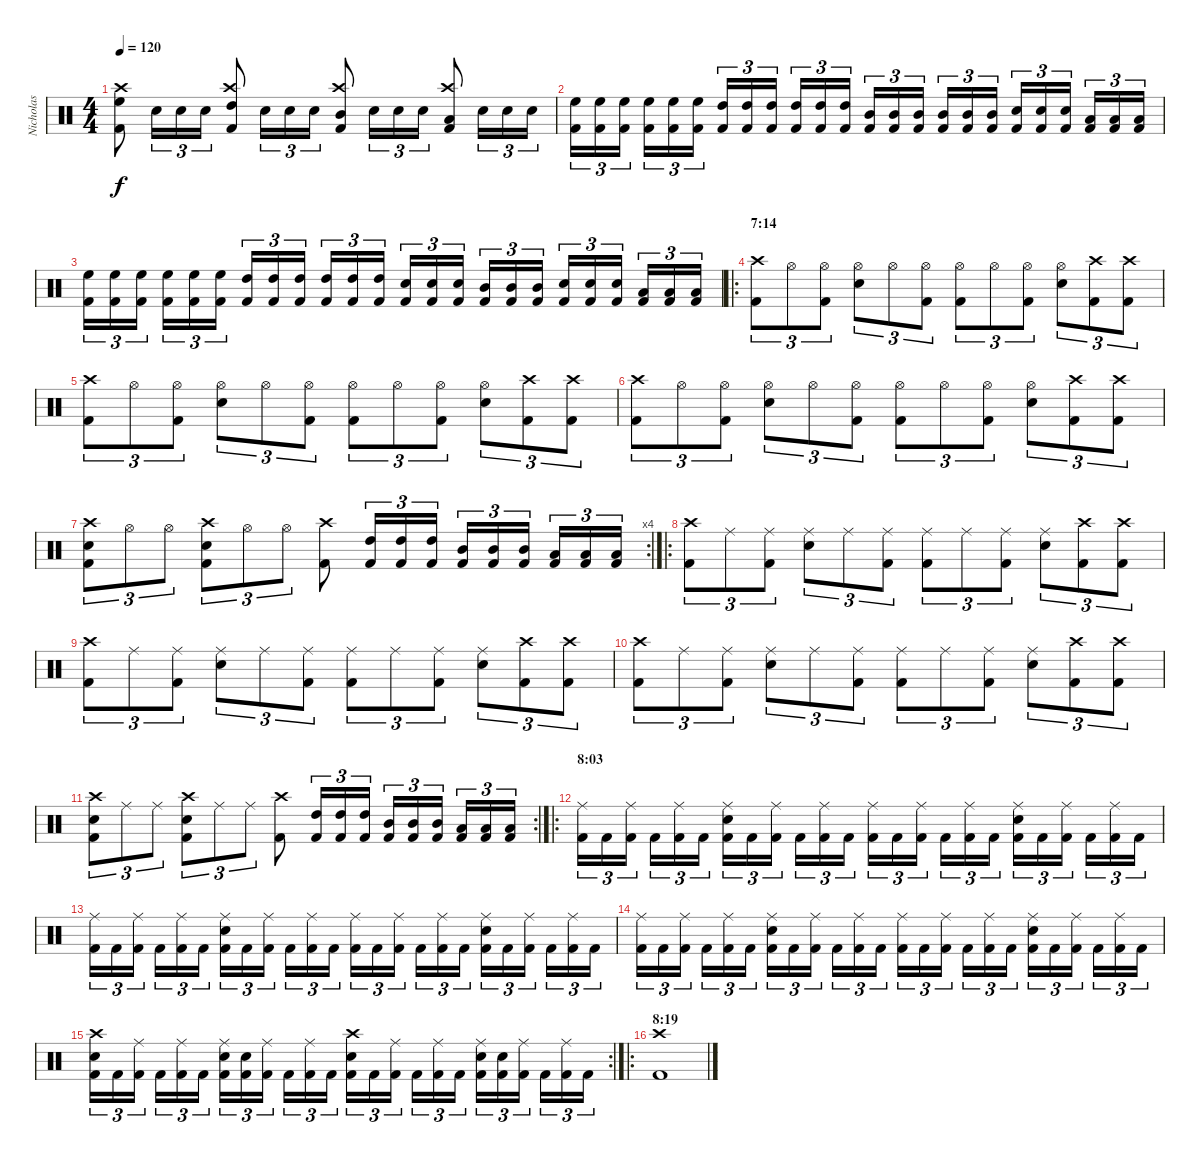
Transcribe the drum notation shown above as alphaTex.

\track ("Nicholas" "Nicholas") {instrument percussion}
\staff {score}
\articulation defaults
\ts (4 4)
\tempo 120
\clef neutral
\ks c
("Kick (hit) 2" "High Floor Tom (hit)" "Crash high (hit)").8{dy f} "Snare (hit) 2".16{tu (3 2)} "Snare (hit) 2".16{tu (3 2)} "Snare (hit) 2".16{tu (3 2)} ("Kick (hit) 2" "High Tom (hit)" "Crash high (hit)").8 "Snare (hit) 2".16{tu (3 2)} "Snare (hit) 2".16{tu (3 2)} "Snare (hit) 2".16{tu (3 2)} ("Kick (hit) 2" "Mid Tom (hit)" "Crash high (hit)").8 "Snare (hit) 2".16{tu (3 2)} "Snare (hit) 2".16{tu (3 2)} "Snare (hit) 2".16{tu (3 2)} ("Kick (hit) 2" "Low Tom (hit)" "Crash high (hit)").8 "Snare (hit) 2".16{tu (3 2)} "Snare (hit) 2".16{tu (3 2)} "Snare (hit) 2".16{tu (3 2)} |
("Kick (hit) 2" "High Floor Tom (hit)").16{tu (3 2)} ("Kick (hit) 2" "High Floor Tom (hit)").16{tu (3 2)} ("Kick (hit) 2" "High Floor Tom (hit)").16{tu (3 2)} ("Kick (hit) 2" "High Floor Tom (hit)").16{tu (3 2)} ("Kick (hit) 2" "High Floor Tom (hit)").16{tu (3 2)} ("Kick (hit) 2" "High Floor Tom (hit)").16{tu (3 2)} ("Kick (hit) 2" "High Tom (hit)").16{tu (3 2)} ("Kick (hit) 2" "High Tom (hit)").16{tu (3 2)} ("Kick (hit) 2" "High Tom (hit)").16{tu (3 2)} ("Kick (hit) 2" "High Tom (hit)").16{tu (3 2)} ("Kick (hit) 2" "High Tom (hit)").16{tu (3 2)} ("Kick (hit) 2" "High Tom (hit)").16{tu (3 2)} ("Kick (hit) 2" "Mid Tom (hit)").16{tu (3 2)} ("Kick (hit) 2" "Mid Tom (hit)").16{tu (3 2)} ("Kick (hit) 2" "Mid Tom (hit)").16{tu (3 2)} ("Kick (hit) 2" "Mid Tom (hit)").16{tu (3 2)} ("Kick (hit) 2" "Mid Tom (hit)").16{tu (3 2)} ("Kick (hit) 2" "Mid Tom (hit)").16{tu (3 2)} ("Kick (hit) 2" "Snare (hit) 2").16{tu (3 2)} ("Kick (hit) 2" "Snare (hit) 2").16{tu (3 2)} ("Kick (hit) 2" "Snare (hit) 2").16{tu (3 2)} ("Kick (hit) 2" "Low Tom (hit)").16{tu (3 2)} ("Kick (hit) 2" "Low Tom (hit)").16{tu (3 2)} ("Kick (hit) 2" "Low Tom (hit)").16{tu (3 2)} |
("Kick (hit) 2" "High Floor Tom (hit)").16{tu (3 2)} ("Kick (hit) 2" "High Floor Tom (hit)").16{tu (3 2)} ("Kick (hit) 2" "High Floor Tom (hit)").16{tu (3 2)} ("Kick (hit) 2" "High Floor Tom (hit)").16{tu (3 2)} ("Kick (hit) 2" "High Floor Tom (hit)").16{tu (3 2)} ("Kick (hit) 2" "High Floor Tom (hit)").16{tu (3 2)} ("Kick (hit) 2" "High Tom (hit)").16{tu (3 2)} ("Kick (hit) 2" "High Tom (hit)").16{tu (3 2)} ("Kick (hit) 2" "High Tom (hit)").16{tu (3 2)} ("Kick (hit) 2" "High Tom (hit)").16{tu (3 2)} ("Kick (hit) 2" "High Tom (hit)").16{tu (3 2)} ("Kick (hit) 2" "High Tom (hit)").16{tu (3 2)} ("Kick (hit) 2" "Snare (hit) 2").16{tu (3 2)} ("Kick (hit) 2" "Snare (hit) 2").16{tu (3 2)} ("Kick (hit) 2" "Snare (hit) 2").16{tu (3 2)} ("Kick (hit) 2" "Mid Tom (hit)").16{tu (3 2)} ("Kick (hit) 2" "Mid Tom (hit)").16{tu (3 2)} ("Kick (hit) 2" "Mid Tom (hit)").16{tu (3 2)} ("Kick (hit) 2" "Snare (hit) 2").16{tu (3 2)} ("Kick (hit) 2" "Snare (hit) 2").16{tu (3 2)} ("Kick (hit) 2" "Snare (hit) 2").16{tu (3 2)} ("Kick (hit) 2" "Low Tom (hit)").16{tu (3 2)} ("Kick (hit) 2" "Low Tom (hit)").16{tu (3 2)} ("Kick (hit) 2" "Low Tom (hit)").16{tu (3 2)} |
\ro
\section ("" "7:14")
("Kick (hit) 2" "Crash high (hit)").8{tu (3 2)} "Hi-Hat (open)".8{tu (3 2)} ("Kick (hit) 2" "Hi-Hat (open)").8{tu (3 2)} ("Snare (hit) 2" "Hi-Hat (open)").8{tu (3 2)} "Hi-Hat (open)".8{tu (3 2)} ("Kick (hit) 2" "Hi-Hat (open)").8{tu (3 2)} ("Kick (hit) 2" "Hi-Hat (open)").8{tu (3 2)} "Hi-Hat (open)".8{tu (3 2)} ("Kick (hit) 2" "Hi-Hat (open)").8{tu (3 2)} ("Snare (hit) 2" "Hi-Hat (open)").8{tu (3 2)} ("Kick (hit) 2" "Crash high (hit)").8{tu (3 2)} ("Kick (hit) 2" "Crash high (hit)").8{tu (3 2)} |
("Kick (hit) 2" "Crash high (hit)").8{tu (3 2)} "Hi-Hat (open)".8{tu (3 2)} ("Kick (hit) 2" "Hi-Hat (open)").8{tu (3 2)} ("Snare (hit) 2" "Hi-Hat (open)").8{tu (3 2)} "Hi-Hat (open)".8{tu (3 2)} ("Kick (hit) 2" "Hi-Hat (open)").8{tu (3 2)} ("Kick (hit) 2" "Hi-Hat (open)").8{tu (3 2)} "Hi-Hat (open)".8{tu (3 2)} ("Kick (hit) 2" "Hi-Hat (open)").8{tu (3 2)} ("Snare (hit) 2" "Hi-Hat (open)").8{tu (3 2)} ("Kick (hit) 2" "Crash high (hit)").8{tu (3 2)} ("Kick (hit) 2" "Crash high (hit)").8{tu (3 2)} |
("Kick (hit) 2" "Crash high (hit)").8{tu (3 2)} "Hi-Hat (open)".8{tu (3 2)} ("Kick (hit) 2" "Hi-Hat (open)").8{tu (3 2)} ("Snare (hit) 2" "Hi-Hat (open)").8{tu (3 2)} "Hi-Hat (open)".8{tu (3 2)} ("Kick (hit) 2" "Hi-Hat (open)").8{tu (3 2)} ("Kick (hit) 2" "Hi-Hat (open)").8{tu (3 2)} "Hi-Hat (open)".8{tu (3 2)} ("Kick (hit) 2" "Hi-Hat (open)").8{tu (3 2)} ("Snare (hit) 2" "Hi-Hat (open)").8{tu (3 2)} ("Kick (hit) 2" "Crash high (hit)").8{tu (3 2)} ("Kick (hit) 2" "Crash high (hit)").8{tu (3 2)} |
\rc 4
("Kick (hit) 2" "Snare (hit) 2" "Crash high (hit)").8{tu (3 2)} "Hi-Hat (open)".8{tu (3 2)} "Hi-Hat (open)".8{tu (3 2)} ("Kick (hit) 2" "Snare (hit) 2" "Crash high (hit)").8{tu (3 2)} "Hi-Hat (open)".8{tu (3 2)} "Hi-Hat (open)".8{tu (3 2)} ("Kick (hit) 2" "Crash high (hit)").8 ("Kick (hit) 2" "High Tom (hit)").16{tu (3 2)} ("Kick (hit) 2" "High Tom (hit)").16{tu (3 2)} ("Kick (hit) 2" "High Tom (hit)").16{tu (3 2)} ("Kick (hit) 2" "Mid Tom (hit)").16{tu (3 2)} ("Kick (hit) 2" "Mid Tom (hit)").16{tu (3 2)} ("Kick (hit) 2" "Mid Tom (hit)").16{tu (3 2)} ("Kick (hit) 2" "Low Tom (hit)").16{tu (3 2)} ("Kick (hit) 2" "Low Tom (hit)").16{tu (3 2)} ("Kick (hit) 2" "Low Tom (hit)").16{tu (3 2)} |
\ro
("Kick (hit) 2" "Crash high (hit)").8{tu (3 2)} "Ride (middle)".8{tu (3 2)} ("Kick (hit) 2" "Ride (middle)").8{tu (3 2)} ("Snare (hit) 2" "Ride (middle)").8{tu (3 2)} "Ride (middle)".8{tu (3 2)} ("Kick (hit) 2" "Ride (middle)").8{tu (3 2)} ("Kick (hit) 2" "Ride (middle)").8{tu (3 2)} "Ride (middle)".8{tu (3 2)} ("Kick (hit) 2" "Ride (middle)").8{tu (3 2)} ("Snare (hit) 2" "Ride (middle)").8{tu (3 2)} ("Kick (hit) 2" "Crash high (hit)").8{tu (3 2)} ("Kick (hit) 2" "Crash high (hit)").8{tu (3 2)} |
("Kick (hit) 2" "Crash high (hit)").8{tu (3 2)} "Ride (middle)".8{tu (3 2)} ("Kick (hit) 2" "Ride (middle)").8{tu (3 2)} ("Snare (hit) 2" "Ride (middle)").8{tu (3 2)} "Ride (middle)".8{tu (3 2)} ("Kick (hit) 2" "Ride (middle)").8{tu (3 2)} ("Kick (hit) 2" "Ride (middle)").8{tu (3 2)} "Ride (middle)".8{tu (3 2)} ("Kick (hit) 2" "Ride (middle)").8{tu (3 2)} ("Snare (hit) 2" "Ride (middle)").8{tu (3 2)} ("Kick (hit) 2" "Crash high (hit)").8{tu (3 2)} ("Kick (hit) 2" "Crash high (hit)").8{tu (3 2)} |
("Kick (hit) 2" "Crash high (hit)").8{tu (3 2)} "Ride (middle)".8{tu (3 2)} ("Kick (hit) 2" "Ride (middle)").8{tu (3 2)} ("Snare (hit) 2" "Ride (middle)").8{tu (3 2)} "Ride (middle)".8{tu (3 2)} ("Kick (hit) 2" "Ride (middle)").8{tu (3 2)} ("Kick (hit) 2" "Ride (middle)").8{tu (3 2)} "Ride (middle)".8{tu (3 2)} ("Kick (hit) 2" "Ride (middle)").8{tu (3 2)} ("Snare (hit) 2" "Ride (middle)").8{tu (3 2)} ("Kick (hit) 2" "Crash high (hit)").8{tu (3 2)} ("Kick (hit) 2" "Crash high (hit)").8{tu (3 2)} |
\rc 2
("Kick (hit) 2" "Snare (hit) 2" "Crash high (hit)").8{tu (3 2)} "Ride (middle)".8{tu (3 2)} "Ride (middle)".8{tu (3 2)} ("Kick (hit) 2" "Snare (hit) 2" "Crash high (hit)").8{tu (3 2)} "Ride (middle)".8{tu (3 2)} "Ride (middle)".8{tu (3 2)} ("Kick (hit) 2" "Crash high (hit)").8 ("Kick (hit) 2" "High Tom (hit)").16{tu (3 2)} ("Kick (hit) 2" "High Tom (hit)").16{tu (3 2)} ("Kick (hit) 2" "High Tom (hit)").16{tu (3 2)} ("Kick (hit) 2" "Mid Tom (hit)").16{tu (3 2)} ("Kick (hit) 2" "Mid Tom (hit)").16{tu (3 2)} ("Kick (hit) 2" "Mid Tom (hit)").16{tu (3 2)} ("Kick (hit) 2" "Low Tom (hit)").16{tu (3 2)} ("Kick (hit) 2" "Low Tom (hit)").16{tu (3 2)} ("Kick (hit) 2" "Low Tom (hit)").16{tu (3 2)} |
\ro
\section ("" "8:03")
("Kick (hit) 2" "Ride (middle)").16{tu (3 2)} "Kick (hit) 2".16{tu (3 2)} ("Kick (hit) 2" "Ride (middle)").16{tu (3 2)} "Kick (hit) 2".16{tu (3 2)} ("Kick (hit) 2" "Ride (middle)").16{tu (3 2)} "Kick (hit) 2".16{tu (3 2)} ("Kick (hit) 2" "Snare (hit) 2" "Ride (middle)").16{tu (3 2)} "Kick (hit) 2".16{tu (3 2)} ("Kick (hit) 2" "Ride (middle)").16{tu (3 2)} "Kick (hit) 2".16{tu (3 2)} ("Kick (hit) 2" "Ride (middle)").16{tu (3 2)} "Kick (hit) 2".16{tu (3 2)} ("Kick (hit) 2" "Ride (middle)").16{tu (3 2)} "Kick (hit) 2".16{tu (3 2)} ("Kick (hit) 2" "Ride (middle)").16{tu (3 2)} "Kick (hit) 2".16{tu (3 2)} ("Kick (hit) 2" "Ride (middle)").16{tu (3 2)} "Kick (hit) 2".16{tu (3 2)} ("Kick (hit) 2" "Snare (hit) 2" "Ride (middle)").16{tu (3 2)} "Kick (hit) 2".16{tu (3 2)} ("Kick (hit) 2" "Ride (middle)").16{tu (3 2)} "Kick (hit) 2".16{tu (3 2)} ("Kick (hit) 2" "Ride (middle)").16{tu (3 2)} "Kick (hit) 2".16{tu (3 2)} |
("Kick (hit) 2" "Ride (middle)").16{tu (3 2)} "Kick (hit) 2".16{tu (3 2)} ("Kick (hit) 2" "Ride (middle)").16{tu (3 2)} "Kick (hit) 2".16{tu (3 2)} ("Kick (hit) 2" "Ride (middle)").16{tu (3 2)} "Kick (hit) 2".16{tu (3 2)} ("Kick (hit) 2" "Snare (hit) 2" "Ride (middle)").16{tu (3 2)} "Kick (hit) 2".16{tu (3 2)} ("Kick (hit) 2" "Ride (middle)").16{tu (3 2)} "Kick (hit) 2".16{tu (3 2)} ("Kick (hit) 2" "Ride (middle)").16{tu (3 2)} "Kick (hit) 2".16{tu (3 2)} ("Kick (hit) 2" "Ride (middle)").16{tu (3 2)} "Kick (hit) 2".16{tu (3 2)} ("Kick (hit) 2" "Ride (middle)").16{tu (3 2)} "Kick (hit) 2".16{tu (3 2)} ("Kick (hit) 2" "Ride (middle)").16{tu (3 2)} "Kick (hit) 2".16{tu (3 2)} ("Kick (hit) 2" "Snare (hit) 2" "Ride (middle)").16{tu (3 2)} "Kick (hit) 2".16{tu (3 2)} ("Kick (hit) 2" "Ride (middle)").16{tu (3 2)} "Kick (hit) 2".16{tu (3 2)} ("Kick (hit) 2" "Ride (middle)").16{tu (3 2)} "Kick (hit) 2".16{tu (3 2)} |
("Kick (hit) 2" "Ride (middle)").16{tu (3 2)} "Kick (hit) 2".16{tu (3 2)} ("Kick (hit) 2" "Ride (middle)").16{tu (3 2)} "Kick (hit) 2".16{tu (3 2)} ("Kick (hit) 2" "Ride (middle)").16{tu (3 2)} "Kick (hit) 2".16{tu (3 2)} ("Kick (hit) 2" "Snare (hit) 2" "Ride (middle)").16{tu (3 2)} "Kick (hit) 2".16{tu (3 2)} ("Kick (hit) 2" "Ride (middle)").16{tu (3 2)} "Kick (hit) 2".16{tu (3 2)} ("Kick (hit) 2" "Ride (middle)").16{tu (3 2)} "Kick (hit) 2".16{tu (3 2)} ("Kick (hit) 2" "Ride (middle)").16{tu (3 2)} "Kick (hit) 2".16{tu (3 2)} ("Kick (hit) 2" "Ride (middle)").16{tu (3 2)} "Kick (hit) 2".16{tu (3 2)} ("Kick (hit) 2" "Ride (middle)").16{tu (3 2)} "Kick (hit) 2".16{tu (3 2)} ("Kick (hit) 2" "Snare (hit) 2" "Ride (middle)").16{tu (3 2)} "Kick (hit) 2".16{tu (3 2)} ("Kick (hit) 2" "Ride (middle)").16{tu (3 2)} "Kick (hit) 2".16{tu (3 2)} ("Kick (hit) 2" "Ride (middle)").16{tu (3 2)} "Kick (hit) 2".16{tu (3 2)} |
\rc 2
("Kick (hit) 2" "Snare (hit) 2" "Crash high (hit)").16{tu (3 2)} "Kick (hit) 2".16{tu (3 2)} ("Kick (hit) 2" "Ride (middle)").16{tu (3 2)} "Kick (hit) 2".16{tu (3 2)} ("Kick (hit) 2" "Ride (middle)").16{tu (3 2)} "Kick (hit) 2".16{tu (3 2)} ("Kick (hit) 2" "Snare (hit) 2" "Ride (middle)").16{tu (3 2)} ("Kick (hit) 2" "Snare (hit) 2").16{tu (3 2)} ("Kick (hit) 2" "Ride (middle)").16{tu (3 2)} "Kick (hit) 2".16{tu (3 2)} ("Kick (hit) 2" "Ride (middle)").16{tu (3 2)} "Kick (hit) 2".16{tu (3 2)} ("Kick (hit) 2" "Snare (hit) 2" "Crash high (hit)").16{tu (3 2)} "Kick (hit) 2".16{tu (3 2)} ("Kick (hit) 2" "Ride (middle)").16{tu (3 2)} "Kick (hit) 2".16{tu (3 2)} ("Kick (hit) 2" "Ride (middle)").16{tu (3 2)} "Kick (hit) 2".16{tu (3 2)} ("Kick (hit) 2" "Snare (hit) 2" "Ride (middle)").16{tu (3 2)} ("Kick (hit) 2" "Snare (hit) 2").16{tu (3 2)} ("Kick (hit) 2" "Ride (middle)").16{tu (3 2)} "Kick (hit) 2".16{tu (3 2)} ("Kick (hit) 2" "Ride (middle)").16{tu (3 2)} "Kick (hit) 2".16{tu (3 2)} |
\ro
\section ("" "8:19")
("Kick (hit) 2" "Crash high (hit)").1
